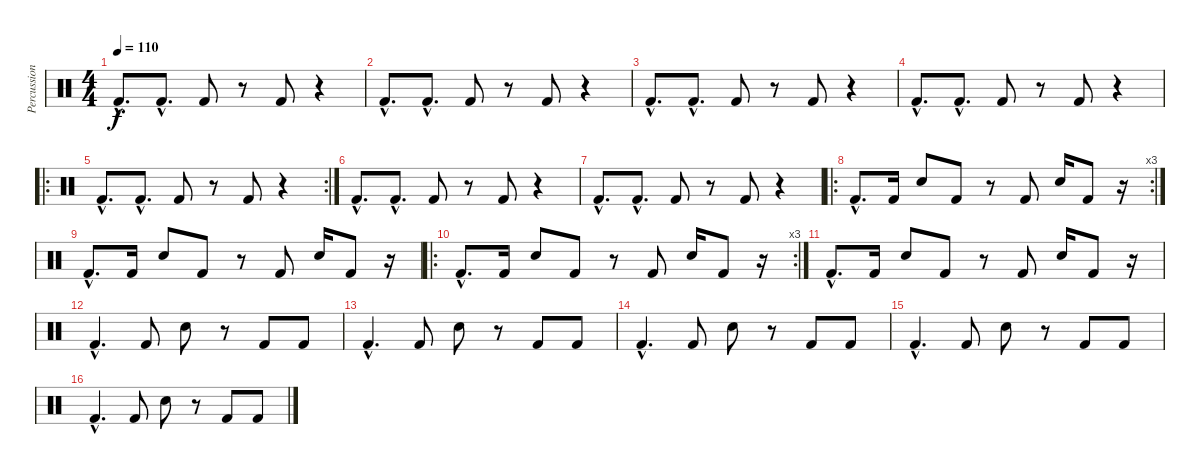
\track ("Percussions" "Percussion") {instrument percussion}
\staff {score}
\articulation defaults
\ts (4 4)
\tempo 110
\clef neutral
\ks c "Kick (hit) 2"{hac}.8{d dy f} "Kick (hit) 2"{hac}.8{d} "Kick (hit) 2".8
r.8 "Kick (hit) 2".8 r.4 |
"Kick (hit) 2"{hac}.8{d} "Kick (hit) 2"{hac}.8{d} "Kick (hit) 2".8 r.8 "Kick (hit) 2".8 r.4 |
"Kick (hit) 2"{hac}.8{d} "Kick (hit) 2"{hac}.8{d} "Kick (hit) 2".8 r.8 "Kick (hit) 2".8 r.4 |
"Kick (hit) 2"{hac}.8{d} "Kick (hit) 2"{hac}.8{d} "Kick (hit) 2".8 r.8 "Kick (hit) 2".8 r.4 |
\ro
\rc 2 "Kick (hit) 2"{hac}.8{d} "Kick (hit) 2"{hac}.8{d} "Kick (hit) 2".8
r.8 "Kick (hit) 2".8 r.4 |
"Kick (hit) 2"{hac}.8{d} "Kick (hit) 2"{hac}.8{d} "Kick (hit) 2".8 r.8 "Kick (hit) 2".8 r.4 |
"Kick (hit) 2"{hac}.8{d} "Kick (hit) 2"{hac}.8{d} "Kick (hit) 2".8 r.8 "Kick (hit) 2".8 r.4 |
\ro
\rc 3 "Kick (hit) 2"{hac}.8{d} "Kick (hit) 2".16 "Electric Snare (hit)".8 "Kick (hit) 2".8
r.8 "Kick (hit) 2".8 "Electric Snare (hit)".16 "Kick (hit) 2".8 r.16 |
"Kick (hit) 2"{hac}.8{d} "Kick (hit) 2".16 "Electric Snare (hit)".8 "Kick (hit) 2".8 r.8 "Kick (hit) 2".8 "Electric Snare (hit)".16 "Kick (hit) 2".8 r.16 |
\ro
\rc 3 "Kick (hit) 2"{hac}.8{d} "Kick (hit) 2".16 "Electric Snare (hit)".8 "Kick (hit) 2".8
r.8 "Kick (hit) 2".8 "Electric Snare (hit)".16 "Kick (hit) 2".8 r.16 |
"Kick (hit) 2"{hac}.8{d} "Kick (hit) 2".16 "Electric Snare (hit)".8 "Kick (hit) 2".8 r.8 "Kick (hit) 2".8 "Electric Snare (hit)".16 "Kick (hit) 2".8 r.16 |
"Kick (hit) 2"{hac}.4{d} "Kick (hit) 2".8 "Electric Snare (hit)".8 r.8 "Kick (hit) 2".8 "Kick (hit) 2".8 |
"Kick (hit) 2"{hac}.4{d} "Kick (hit) 2".8 "Electric Snare (hit)".8 r.8 "Kick (hit) 2".8 "Kick (hit) 2".8 |
"Kick (hit) 2"{hac}.4{d} "Kick (hit) 2".8 "Electric Snare (hit)".8 r.8 "Kick (hit) 2".8 "Kick (hit) 2".8 |
"Kick (hit) 2"{hac}.4{d} "Kick (hit) 2".8 "Electric Snare (hit)".8 r.8 "Kick (hit) 2".8 "Kick (hit) 2".8 |
"Kick (hit) 2"{hac}.4{d} "Kick (hit) 2".8 "Electric Snare (hit)".8 r.8 "Kick (hit) 2".8 "Kick (hit) 2".8
